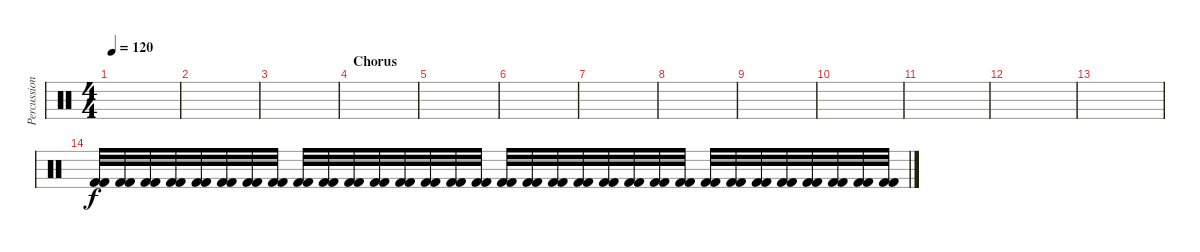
\track ("Percussions" "Percussion") {instrument percussion}
\staff {score}
\articulation defaults
\ts (4 4)
\tempo 120
\clef neutral
\ks c
|
|
|
\section ("" "Chorus")
|
|
|
|
|
|
|
|
|
|
("Kick (hit) 2" "Kick (hit) 2").32 ("Kick (hit) 2" "Kick (hit) 2").32 ("Kick (hit) 2" "Kick (hit) 2").32 ("Kick (hit) 2" "Kick (hit) 2").32 ("Kick (hit) 2" "Kick (hit) 2").32 ("Kick (hit) 2" "Kick (hit) 2").32 ("Kick (hit) 2" "Kick (hit) 2").32 ("Kick (hit) 2" "Kick (hit) 2").32 ("Kick (hit) 2" "Kick (hit) 2").32 ("Kick (hit) 2" "Kick (hit) 2").32 ("Kick (hit) 2" "Kick (hit) 2").32 ("Kick (hit) 2" "Kick (hit) 2").32 ("Kick (hit) 2" "Kick (hit) 2").32 ("Kick (hit) 2" "Kick (hit) 2").32 ("Kick (hit) 2" "Kick (hit) 2").32 ("Kick (hit) 2" "Kick (hit) 2").32 ("Kick (hit) 2" "Kick (hit) 2").32 ("Kick (hit) 2" "Kick (hit) 2").32 ("Kick (hit) 2" "Kick (hit) 2").32 ("Kick (hit) 2" "Kick (hit) 2").32 ("Kick (hit) 2" "Kick (hit) 2").32 ("Kick (hit) 2" "Kick (hit) 2").32 ("Kick (hit) 2" "Kick (hit) 2").32 ("Kick (hit) 2" "Kick (hit) 2").32 ("Kick (hit) 2" "Kick (hit) 2").32 ("Kick (hit) 2" "Kick (hit) 2").32 ("Kick (hit) 2" "Kick (hit) 2").32 ("Kick (hit) 2" "Kick (hit) 2").32 ("Kick (hit) 2" "Kick (hit) 2").32 ("Kick (hit) 2" "Kick (hit) 2").32 ("Kick (hit) 2" "Kick (hit) 2").32 ("Kick (hit) 2" "Kick (hit) 2").32
